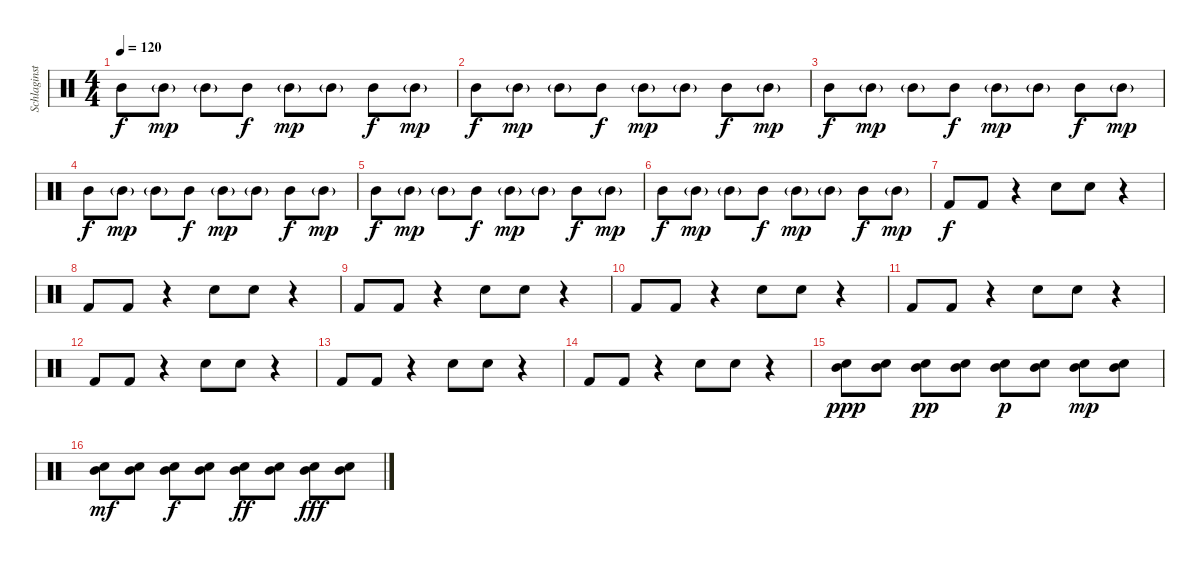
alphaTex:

\track ("Schlaginstrumente - Auswahl" "Schlaginst") {instrument percussion}
\staff {score}
\articulation defaults
\ts (4 4)
\tempo 120
\clef neutral
\ks c "Mid Tom (hit)".8{dy f} "Mid Tom (hit)"{g}.8{dy mp} "Mid Tom (hit)"{g}.8 "Mid Tom (hit)".8{dy f} "Mid Tom (hit)"{g}.8{dy mp} "Mid Tom (hit)"{g}.8 "Mid Tom (hit)".8{dy f} "Mid Tom (hit)"{g}.8{dy mp}
|
"Mid Tom (hit)".8{dy f} "Mid Tom (hit)"{g}.8{dy mp} "Mid Tom (hit)"{g}.8 "Mid Tom (hit)".8{dy f} "Mid Tom (hit)"{g}.8{dy mp} "Mid Tom (hit)"{g}.8 "Mid Tom (hit)".8{dy f} "Mid Tom (hit)"{g}.8{dy mp} |
"Mid Tom (hit)".8{dy f} "Mid Tom (hit)"{g}.8{dy mp} "Mid Tom (hit)"{g}.8 "Mid Tom (hit)".8{dy f} "Mid Tom (hit)"{g}.8{dy mp} "Mid Tom (hit)"{g}.8 "Mid Tom (hit)".8{dy f} "Mid Tom (hit)"{g}.8{dy mp} |
"Mid Tom (hit)".8{dy f} "Mid Tom (hit)"{g}.8{dy mp} "Mid Tom (hit)"{g}.8 "Mid Tom (hit)".8{dy f} "Mid Tom (hit)"{g}.8{dy mp} "Mid Tom (hit)"{g}.8 "Mid Tom (hit)".8{dy f} "Mid Tom (hit)"{g}.8{dy mp} |
"Mid Tom (hit)".8{dy f} "Mid Tom (hit)"{g}.8{dy mp} "Mid Tom (hit)"{g}.8 "Mid Tom (hit)".8{dy f} "Mid Tom (hit)"{g}.8{dy mp} "Mid Tom (hit)"{g}.8 "Mid Tom (hit)".8{dy f} "Mid Tom (hit)"{g}.8{dy mp} |
"Mid Tom (hit)".8{dy f} "Mid Tom (hit)"{g}.8{dy mp} "Mid Tom (hit)"{g}.8 "Mid Tom (hit)".8{dy f} "Mid Tom (hit)"{g}.8{dy mp} "Mid Tom (hit)"{g}.8 "Mid Tom (hit)".8{dy f} "Mid Tom (hit)"{g}.8{dy mp} |
"Kick (hit) 2".8{dy f} "Kick (hit) 2".8 r.4 "Snare (hit) 2".8 "Snare (hit) 2".8 r.4 |
"Kick (hit) 2".8 "Kick (hit) 2".8 r.4 "Snare (hit) 2".8 "Snare (hit) 2".8 r.4 |
"Kick (hit) 2".8 "Kick (hit) 2".8 r.4 "Snare (hit) 2".8 "Snare (hit) 2".8 r.4 |
"Kick (hit) 2".8 "Kick (hit) 2".8 r.4 "Snare (hit) 2".8 "Snare (hit) 2".8 r.4 |
"Kick (hit) 2".8 "Kick (hit) 2".8 r.4 "Snare (hit) 2".8 "Snare (hit) 2".8 r.4 |
"Kick (hit) 2".8 "Kick (hit) 2".8 r.4 "Snare (hit) 2".8 "Snare (hit) 2".8 r.4 |
"Kick (hit) 2".8 "Kick (hit) 2".8 r.4 "Snare (hit) 2".8 "Snare (hit) 2".8 r.4 |
"Kick (hit) 2".8 "Kick (hit) 2".8 r.4 "Snare (hit) 2".8 "Snare (hit) 2".8 r.4 |
("Mid Tom (hit)" "Snare (hit) 2").8{dy ppp} ("Mid Tom (hit)" "Snare (hit) 2").8 ("Mid Tom (hit)" "Snare (hit) 2").8{dy pp} ("Mid Tom (hit)" "Snare (hit) 2").8 ("Mid Tom (hit)" "Snare (hit) 2").8{dy p} ("Mid Tom (hit)" "Snare (hit) 2").8 ("Mid Tom (hit)" "Snare (hit) 2").8{dy mp} ("Mid Tom (hit)" "Snare (hit) 2").8 |
("Mid Tom (hit)" "Snare (hit) 2").8{dy mf} ("Mid Tom (hit)" "Snare (hit) 2").8 ("Mid Tom (hit)" "Snare (hit) 2").8{dy f} ("Mid Tom (hit)" "Snare (hit) 2").8 ("Mid Tom (hit)" "Snare (hit) 2").8{dy ff} ("Mid Tom (hit)" "Snare (hit) 2").8 ("Mid Tom (hit)" "Snare (hit) 2").8{dy fff} ("Mid Tom (hit)" "Snare (hit) 2").8
